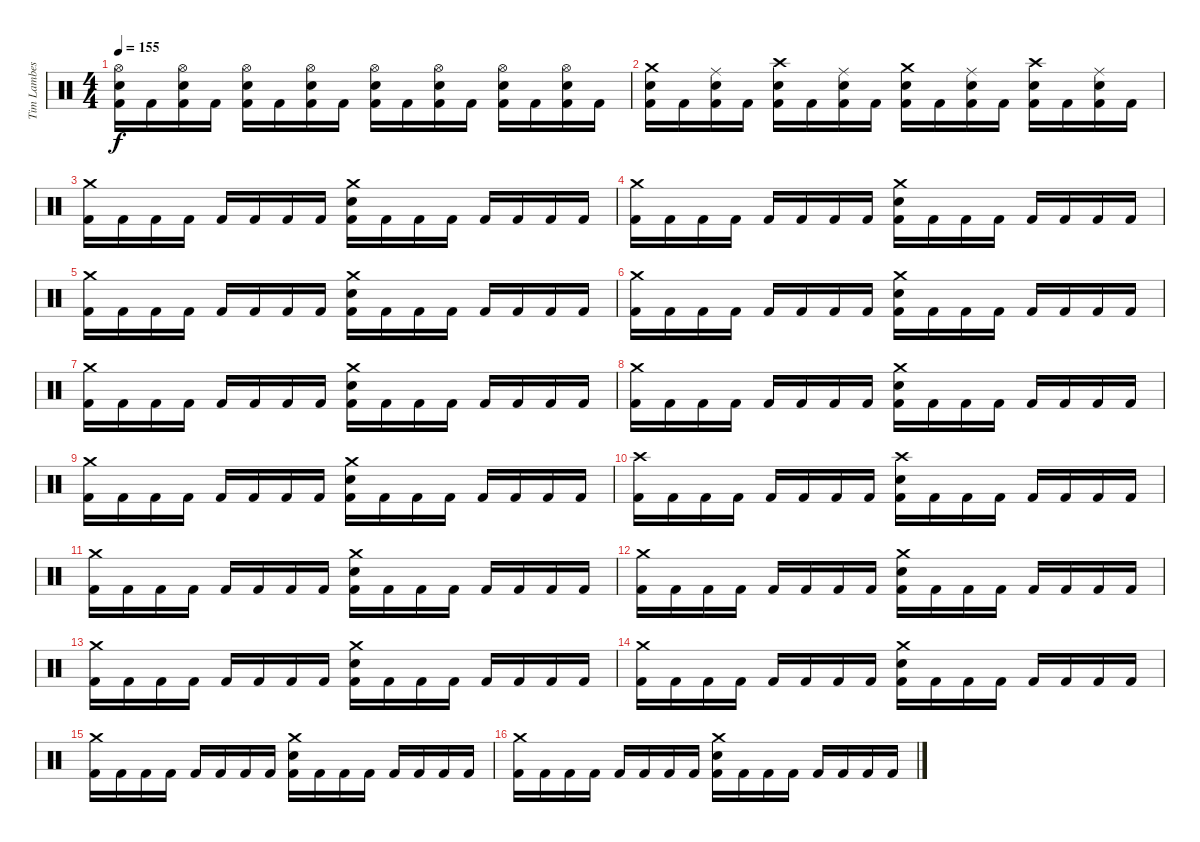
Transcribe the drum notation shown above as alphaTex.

\track ("Tim Lambesis" "Tim Lambes") {instrument percussion}
\staff {score}
\articulation defaults
\ts (4 4)
\tempo 155
\clef neutral
\ks c
("Hi-Hat (open)" "Electric Snare (hit)" "Kick (hit) 2").16{dy f} "Kick (hit) 2".16 ("Hi-Hat (open)" "Electric Snare (hit)" "Kick (hit) 2").16 "Kick (hit) 2".16 ("Hi-Hat (open)" "Electric Snare (hit)" "Kick (hit) 2").16 "Kick (hit) 2".16 ("Hi-Hat (open)" "Electric Snare (hit)" "Kick (hit) 2").16 "Kick (hit) 2".16 ("Hi-Hat (open)" "Electric Snare (hit)" "Kick (hit) 2").16 "Kick (hit) 2".16 ("Hi-Hat (open)" "Electric Snare (hit)" "Kick (hit) 2").16 "Kick (hit) 2".16 ("Hi-Hat (open)" "Electric Snare (hit)" "Kick (hit) 2").16 "Kick (hit) 2".16 ("Hi-Hat (open)" "Electric Snare (hit)" "Kick (hit) 2").16 "Kick (hit) 2".16 |
("Crash medium (hit)" "Electric Snare (hit)" "Kick (hit) 2").16 "Kick (hit) 2".16 ("Ride (middle)" "Electric Snare (hit)" "Kick (hit) 2").16 "Kick (hit) 2".16 ("Crash high (hit)" "Electric Snare (hit)" "Kick (hit) 2").16 "Kick (hit) 2".16 ("Ride (middle)" "Electric Snare (hit)" "Kick (hit) 2").16 "Kick (hit) 2".16 ("Crash medium (hit)" "Electric Snare (hit)" "Kick (hit) 2").16 "Kick (hit) 2".16 ("Ride (middle)" "Electric Snare (hit)" "Kick (hit) 2").16 "Kick (hit) 2".16 ("Crash high (hit)" "Electric Snare (hit)" "Kick (hit) 2").16 "Kick (hit) 2".16 ("Ride (middle)" "Electric Snare (hit)" "Kick (hit) 2").16 "Kick (hit) 2".16 |
("Crash medium (hit)" "Kick (hit) 2").16 "Kick (hit) 2".16 "Kick (hit) 2".16 "Kick (hit) 2".16 "Kick (hit) 2".16 "Kick (hit) 2".16 "Kick (hit) 2".16 "Kick (hit) 2".16 ("Crash medium (hit)" "Electric Snare (hit)" "Kick (hit) 2").16 "Kick (hit) 2".16 "Kick (hit) 2".16 "Kick (hit) 2".16 "Kick (hit) 2".16 "Kick (hit) 2".16 "Kick (hit) 2".16 "Kick (hit) 2".16 |
("Crash medium (hit)" "Kick (hit) 2").16 "Kick (hit) 2".16 "Kick (hit) 2".16 "Kick (hit) 2".16 "Kick (hit) 2".16 "Kick (hit) 2".16 "Kick (hit) 2".16 "Kick (hit) 2".16 ("Crash medium (hit)" "Electric Snare (hit)" "Kick (hit) 2").16 "Kick (hit) 2".16 "Kick (hit) 2".16 "Kick (hit) 2".16 "Kick (hit) 2".16 "Kick (hit) 2".16 "Kick (hit) 2".16 "Kick (hit) 2".16 |
("Crash medium (hit)" "Kick (hit) 2").16 "Kick (hit) 2".16 "Kick (hit) 2".16 "Kick (hit) 2".16 "Kick (hit) 2".16 "Kick (hit) 2".16 "Kick (hit) 2".16 "Kick (hit) 2".16 ("Crash medium (hit)" "Electric Snare (hit)" "Kick (hit) 2").16 "Kick (hit) 2".16 "Kick (hit) 2".16 "Kick (hit) 2".16 "Kick (hit) 2".16 "Kick (hit) 2".16 "Kick (hit) 2".16 "Kick (hit) 2".16 |
("Crash medium (hit)" "Kick (hit) 2").16 "Kick (hit) 2".16 "Kick (hit) 2".16 "Kick (hit) 2".16 "Kick (hit) 2".16 "Kick (hit) 2".16 "Kick (hit) 2".16 "Kick (hit) 2".16 ("Crash medium (hit)" "Electric Snare (hit)" "Kick (hit) 2").16 "Kick (hit) 2".16 "Kick (hit) 2".16 "Kick (hit) 2".16 "Kick (hit) 2".16 "Kick (hit) 2".16 "Kick (hit) 2".16 "Kick (hit) 2".16 |
("Crash medium (hit)" "Kick (hit) 2").16 "Kick (hit) 2".16 "Kick (hit) 2".16 "Kick (hit) 2".16 "Kick (hit) 2".16 "Kick (hit) 2".16 "Kick (hit) 2".16 "Kick (hit) 2".16 ("Crash medium (hit)" "Electric Snare (hit)" "Kick (hit) 2").16 "Kick (hit) 2".16 "Kick (hit) 2".16 "Kick (hit) 2".16 "Kick (hit) 2".16 "Kick (hit) 2".16 "Kick (hit) 2".16 "Kick (hit) 2".16 |
("Crash medium (hit)" "Kick (hit) 2").16 "Kick (hit) 2".16 "Kick (hit) 2".16 "Kick (hit) 2".16 "Kick (hit) 2".16 "Kick (hit) 2".16 "Kick (hit) 2".16 "Kick (hit) 2".16 ("Crash medium (hit)" "Electric Snare (hit)" "Kick (hit) 2").16 "Kick (hit) 2".16 "Kick (hit) 2".16 "Kick (hit) 2".16 "Kick (hit) 2".16 "Kick (hit) 2".16 "Kick (hit) 2".16 "Kick (hit) 2".16 |
("Crash medium (hit)" "Kick (hit) 2").16 "Kick (hit) 2".16 "Kick (hit) 2".16 "Kick (hit) 2".16 "Kick (hit) 2".16 "Kick (hit) 2".16 "Kick (hit) 2".16 "Kick (hit) 2".16 ("Crash medium (hit)" "Electric Snare (hit)" "Kick (hit) 2").16 "Kick (hit) 2".16 "Kick (hit) 2".16 "Kick (hit) 2".16 "Kick (hit) 2".16 "Kick (hit) 2".16 "Kick (hit) 2".16 "Kick (hit) 2".16 |
("Crash high (hit)" "Kick (hit) 2").16 "Kick (hit) 2".16 "Kick (hit) 2".16 "Kick (hit) 2".16 "Kick (hit) 2".16 "Kick (hit) 2".16 "Kick (hit) 2".16 "Kick (hit) 2".16 ("Crash high (hit)" "Electric Snare (hit)" "Kick (hit) 2").16 "Kick (hit) 2".16 "Kick (hit) 2".16 "Kick (hit) 2".16 "Kick (hit) 2".16 "Kick (hit) 2".16 "Kick (hit) 2".16 "Kick (hit) 2".16 |
("Crash medium (hit)" "Kick (hit) 2").16 "Kick (hit) 2".16 "Kick (hit) 2".16 "Kick (hit) 2".16 "Kick (hit) 2".16 "Kick (hit) 2".16 "Kick (hit) 2".16 "Kick (hit) 2".16 ("Crash medium (hit)" "Electric Snare (hit)" "Kick (hit) 2").16 "Kick (hit) 2".16 "Kick (hit) 2".16 "Kick (hit) 2".16 "Kick (hit) 2".16 "Kick (hit) 2".16 "Kick (hit) 2".16 "Kick (hit) 2".16 |
("Crash medium (hit)" "Kick (hit) 2").16 "Kick (hit) 2".16 "Kick (hit) 2".16 "Kick (hit) 2".16 "Kick (hit) 2".16 "Kick (hit) 2".16 "Kick (hit) 2".16 "Kick (hit) 2".16 ("Crash medium (hit)" "Electric Snare (hit)" "Kick (hit) 2").16 "Kick (hit) 2".16 "Kick (hit) 2".16 "Kick (hit) 2".16 "Kick (hit) 2".16 "Kick (hit) 2".16 "Kick (hit) 2".16 "Kick (hit) 2".16 |
("Crash medium (hit)" "Kick (hit) 2").16 "Kick (hit) 2".16 "Kick (hit) 2".16 "Kick (hit) 2".16 "Kick (hit) 2".16 "Kick (hit) 2".16 "Kick (hit) 2".16 "Kick (hit) 2".16 ("Crash medium (hit)" "Electric Snare (hit)" "Kick (hit) 2").16 "Kick (hit) 2".16 "Kick (hit) 2".16 "Kick (hit) 2".16 "Kick (hit) 2".16 "Kick (hit) 2".16 "Kick (hit) 2".16 "Kick (hit) 2".16 |
("Crash medium (hit)" "Kick (hit) 2").16 "Kick (hit) 2".16 "Kick (hit) 2".16 "Kick (hit) 2".16 "Kick (hit) 2".16 "Kick (hit) 2".16 "Kick (hit) 2".16 "Kick (hit) 2".16 ("Crash medium (hit)" "Electric Snare (hit)" "Kick (hit) 2").16 "Kick (hit) 2".16 "Kick (hit) 2".16 "Kick (hit) 2".16 "Kick (hit) 2".16 "Kick (hit) 2".16 "Kick (hit) 2".16 "Kick (hit) 2".16 |
("Crash medium (hit)" "Kick (hit) 2").16 "Kick (hit) 2".16 "Kick (hit) 2".16 "Kick (hit) 2".16 "Kick (hit) 2".16 "Kick (hit) 2".16 "Kick (hit) 2".16 "Kick (hit) 2".16 ("Crash medium (hit)" "Electric Snare (hit)" "Kick (hit) 2").16 "Kick (hit) 2".16 "Kick (hit) 2".16 "Kick (hit) 2".16 "Kick (hit) 2".16 "Kick (hit) 2".16 "Kick (hit) 2".16 "Kick (hit) 2".16 |
("Crash medium (hit)" "Kick (hit) 2").16 "Kick (hit) 2".16 "Kick (hit) 2".16 "Kick (hit) 2".16 "Kick (hit) 2".16 "Kick (hit) 2".16 "Kick (hit) 2".16 "Kick (hit) 2".16 ("Crash medium (hit)" "Electric Snare (hit)" "Kick (hit) 2").16 "Kick (hit) 2".16 "Kick (hit) 2".16 "Kick (hit) 2".16 "Kick (hit) 2".16 "Kick (hit) 2".16 "Kick (hit) 2".16 "Kick (hit) 2".16
